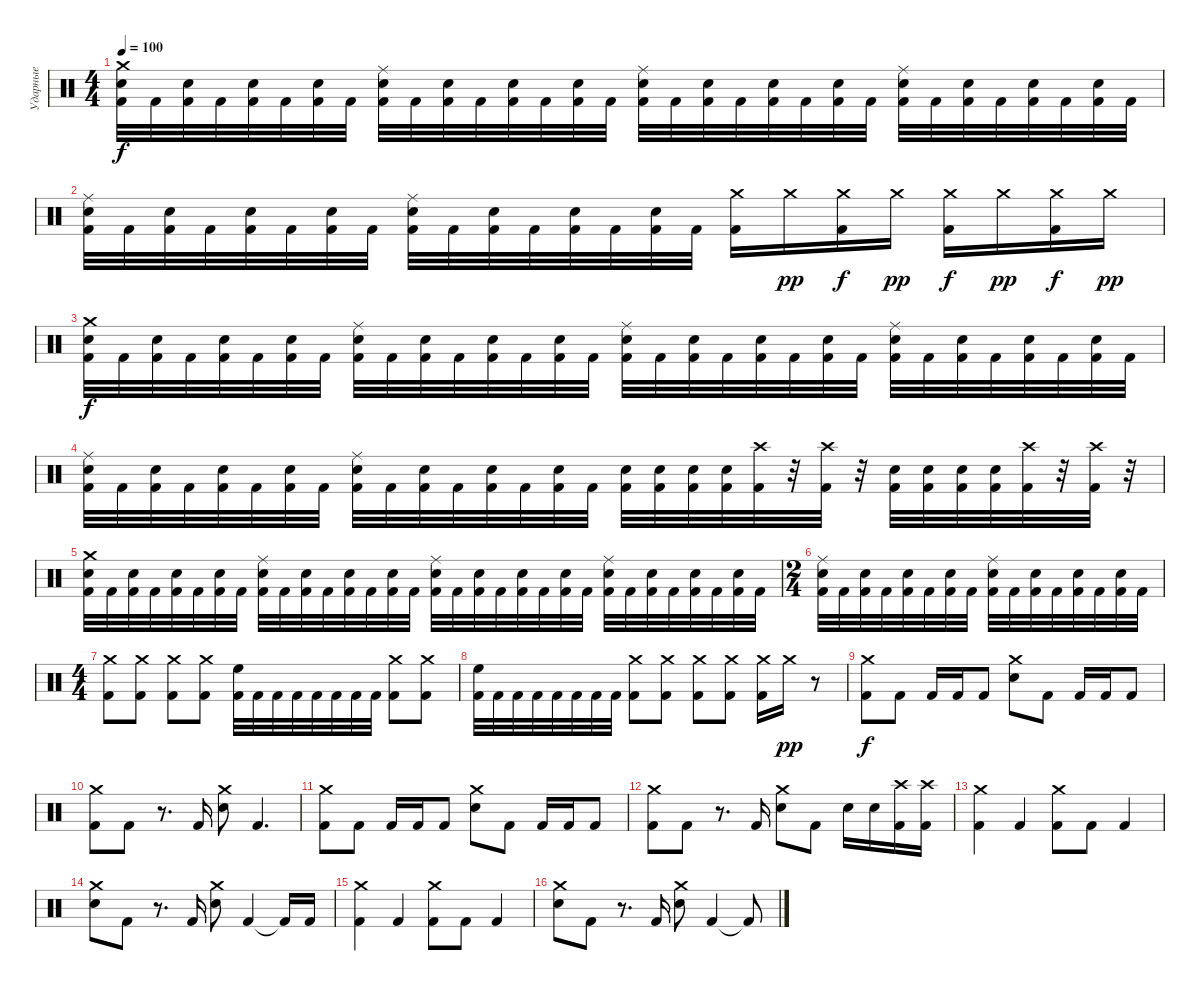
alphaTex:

\track ("Ударные" "Ударные") {instrument percussion}
\staff {score}
\articulation defaults
\ts (4 4)
\tempo 100
\clef neutral
\ks c
("Crash medium (hit)" "Electric Snare (hit)" "Kick (hit) 2").32{dy f} "Kick (hit) 2".32 ("Electric Snare (hit)" "Kick (hit) 2").32 "Kick (hit) 2".32 ("Electric Snare (hit)" "Kick (hit) 2").32 "Kick (hit) 2".32 ("Electric Snare (hit)" "Kick (hit) 2").32 "Kick (hit) 2".32 ("Ride (middle)" "Electric Snare (hit)" "Kick (hit) 2").32 "Kick (hit) 2".32 ("Electric Snare (hit)" "Kick (hit) 2").32 "Kick (hit) 2".32 ("Electric Snare (hit)" "Kick (hit) 2").32 "Kick (hit) 2".32 ("Electric Snare (hit)" "Kick (hit) 2").32 "Kick (hit) 2".32 ("Ride (middle)" "Electric Snare (hit)" "Kick (hit) 2").32 "Kick (hit) 2".32 ("Electric Snare (hit)" "Kick (hit) 2").32 "Kick (hit) 2".32 ("Electric Snare (hit)" "Kick (hit) 2").32 "Kick (hit) 2".32 ("Electric Snare (hit)" "Kick (hit) 2").32 "Kick (hit) 2".32 ("Ride (middle)" "Electric Snare (hit)" "Kick (hit) 2").32 "Kick (hit) 2".32 ("Electric Snare (hit)" "Kick (hit) 2").32 "Kick (hit) 2".32 ("Electric Snare (hit)" "Kick (hit) 2").32 "Kick (hit) 2".32 ("Electric Snare (hit)" "Kick (hit) 2").32 "Kick (hit) 2".32 |
("Ride (middle)" "Electric Snare (hit)" "Kick (hit) 2").32 "Kick (hit) 2".32 ("Electric Snare (hit)" "Kick (hit) 2").32 "Kick (hit) 2".32 ("Electric Snare (hit)" "Kick (hit) 2").32 "Kick (hit) 2".32 ("Electric Snare (hit)" "Kick (hit) 2").32 "Kick (hit) 2".32 ("Ride (middle)" "Electric Snare (hit)" "Kick (hit) 2").32 "Kick (hit) 2".32 ("Electric Snare (hit)" "Kick (hit) 2").32 "Kick (hit) 2".32 ("Electric Snare (hit)" "Kick (hit) 2").32 "Kick (hit) 2".32 ("Electric Snare (hit)" "Kick (hit) 2").32 "Kick (hit) 2".32 ("Crash medium (hit)" "Kick (hit) 2").16 "Crash medium (hit)".16{dy pp} ("Crash medium (hit)" "Kick (hit) 2").16{dy f} "Crash medium (hit)".16{dy pp} ("Crash medium (hit)" "Kick (hit) 2").16{dy f} "Crash medium (hit)".16{dy pp} ("Crash medium (hit)" "Kick (hit) 2").16{dy f} "Crash medium (hit)".16{dy pp} |
("Crash medium (hit)" "Electric Snare (hit)" "Kick (hit) 2").32{dy f} "Kick (hit) 2".32 ("Electric Snare (hit)" "Kick (hit) 2").32 "Kick (hit) 2".32 ("Electric Snare (hit)" "Kick (hit) 2").32 "Kick (hit) 2".32 ("Electric Snare (hit)" "Kick (hit) 2").32 "Kick (hit) 2".32 ("Ride (middle)" "Electric Snare (hit)" "Kick (hit) 2").32 "Kick (hit) 2".32 ("Electric Snare (hit)" "Kick (hit) 2").32 "Kick (hit) 2".32 ("Electric Snare (hit)" "Kick (hit) 2").32 "Kick (hit) 2".32 ("Electric Snare (hit)" "Kick (hit) 2").32 "Kick (hit) 2".32 ("Ride (middle)" "Electric Snare (hit)" "Kick (hit) 2").32 "Kick (hit) 2".32 ("Electric Snare (hit)" "Kick (hit) 2").32 "Kick (hit) 2".32 ("Electric Snare (hit)" "Kick (hit) 2").32 "Kick (hit) 2".32 ("Electric Snare (hit)" "Kick (hit) 2").32 "Kick (hit) 2".32 ("Ride (middle)" "Electric Snare (hit)" "Kick (hit) 2").32 "Kick (hit) 2".32 ("Electric Snare (hit)" "Kick (hit) 2").32 "Kick (hit) 2".32 ("Electric Snare (hit)" "Kick (hit) 2").32 "Kick (hit) 2".32 ("Electric Snare (hit)" "Kick (hit) 2").32 "Kick (hit) 2".32 |
("Ride (middle)" "Electric Snare (hit)" "Kick (hit) 2").32 "Kick (hit) 2".32 ("Electric Snare (hit)" "Kick (hit) 2").32 "Kick (hit) 2".32 ("Electric Snare (hit)" "Kick (hit) 2").32 "Kick (hit) 2".32 ("Electric Snare (hit)" "Kick (hit) 2").32 "Kick (hit) 2".32 ("Ride (middle)" "Electric Snare (hit)" "Kick (hit) 2").32 "Kick (hit) 2".32 ("Electric Snare (hit)" "Kick (hit) 2").32 "Kick (hit) 2".32 ("Electric Snare (hit)" "Kick (hit) 2").32 "Kick (hit) 2".32 ("Electric Snare (hit)" "Kick (hit) 2").32 "Kick (hit) 2".32 ("Electric Snare (hit)" "Kick (hit) 2").32 ("Electric Snare (hit)" "Kick (hit) 2").32 ("Electric Snare (hit)" "Kick (hit) 2").32 ("Electric Snare (hit)" "Kick (hit) 2").32 ("Crash high (hit)" "Kick (hit) 2").32 r.32 ("Crash high (hit)" "Kick (hit) 2").32 r.32 ("Electric Snare (hit)" "Kick (hit) 2").32 ("Electric Snare (hit)" "Kick (hit) 2").32 ("Electric Snare (hit)" "Kick (hit) 2").32 ("Electric Snare (hit)" "Kick (hit) 2").32 ("Crash high (hit)" "Kick (hit) 2").32 r.32 ("Crash high (hit)" "Kick (hit) 2").32 r.32 |
("Crash medium (hit)" "Electric Snare (hit)" "Kick (hit) 2").32 "Kick (hit) 2".32 ("Electric Snare (hit)" "Kick (hit) 2").32 "Kick (hit) 2".32 ("Electric Snare (hit)" "Kick (hit) 2").32 "Kick (hit) 2".32 ("Electric Snare (hit)" "Kick (hit) 2").32 "Kick (hit) 2".32 ("Ride (middle)" "Electric Snare (hit)" "Kick (hit) 2").32 "Kick (hit) 2".32 ("Electric Snare (hit)" "Kick (hit) 2").32 "Kick (hit) 2".32 ("Electric Snare (hit)" "Kick (hit) 2").32 "Kick (hit) 2".32 ("Electric Snare (hit)" "Kick (hit) 2").32 "Kick (hit) 2".32 ("Ride (middle)" "Electric Snare (hit)" "Kick (hit) 2").32 "Kick (hit) 2".32 ("Electric Snare (hit)" "Kick (hit) 2").32 "Kick (hit) 2".32 ("Electric Snare (hit)" "Kick (hit) 2").32 "Kick (hit) 2".32 ("Electric Snare (hit)" "Kick (hit) 2").32 "Kick (hit) 2".32 ("Ride (middle)" "Electric Snare (hit)" "Kick (hit) 2").32 "Kick (hit) 2".32 ("Electric Snare (hit)" "Kick (hit) 2").32 "Kick (hit) 2".32 ("Electric Snare (hit)" "Kick (hit) 2").32 "Kick (hit) 2".32 ("Electric Snare (hit)" "Kick (hit) 2").32 "Kick (hit) 2".32 |
\ts (2 4)
("Ride (middle)" "Electric Snare (hit)" "Kick (hit) 2").32 "Kick (hit) 2".32 ("Electric Snare (hit)" "Kick (hit) 2").32 "Kick (hit) 2".32 ("Electric Snare (hit)" "Kick (hit) 2").32 "Kick (hit) 2".32 ("Electric Snare (hit)" "Kick (hit) 2").32 "Kick (hit) 2".32 ("Ride (middle)" "Electric Snare (hit)" "Kick (hit) 2").32 "Kick (hit) 2".32 ("Electric Snare (hit)" "Kick (hit) 2").32 "Kick (hit) 2".32 ("Electric Snare (hit)" "Kick (hit) 2").32 "Kick (hit) 2".32 ("Electric Snare (hit)" "Kick (hit) 2").32 "Kick (hit) 2".32 |
\ts (4 4)
("Crash medium (hit)" "Kick (hit) 2").8 ("Crash medium (hit)" "Kick (hit) 2").8 ("Crash medium (hit)" "Kick (hit) 2").8 ("Crash medium (hit)" "Kick (hit) 2").8 ("High Floor Tom (hit)" "Kick (hit) 2").32 "Kick (hit) 2".32 "Kick (hit) 2".32 "Kick (hit) 2".32 "Kick (hit) 2".32 "Kick (hit) 2".32 "Kick (hit) 2".32 "Kick (hit) 2".32 ("Crash medium (hit)" "Kick (hit) 2").8 ("Crash medium (hit)" "Kick (hit) 2").8 |
("High Floor Tom (hit)" "Kick (hit) 2").32 "Kick (hit) 2".32 "Kick (hit) 2".32 "Kick (hit) 2".32 "Kick (hit) 2".32 "Kick (hit) 2".32 "Kick (hit) 2".32 "Kick (hit) 2".32 ("Crash medium (hit)" "Kick (hit) 2").8 ("Crash medium (hit)" "Kick (hit) 2").8 ("Crash medium (hit)" "Kick (hit) 2").8 ("Crash medium (hit)" "Kick (hit) 2").8 ("Crash medium (hit)" "Kick (hit) 2").16 "Crash medium (hit)".16{dy pp} r.8 |
("Crash medium (hit)" "Kick (hit) 2").8{dy f} "Kick (hit) 2".8 "Kick (hit) 2".16 "Kick (hit) 2".16 "Kick (hit) 2".8 ("Crash medium (hit)" "Electric Snare (hit)").8 "Kick (hit) 2".8 "Kick (hit) 2".16 "Kick (hit) 2".16 "Kick (hit) 2".8 |
("Crash medium (hit)" "Kick (hit) 2").8 "Kick (hit) 2".8 r.8{d} "Kick (hit) 2".16 ("Crash medium (hit)" "Electric Snare (hit)").8 "Kick (hit) 2".4{d} |
("Crash medium (hit)" "Kick (hit) 2").8 "Kick (hit) 2".8 "Kick (hit) 2".16 "Kick (hit) 2".16 "Kick (hit) 2".8 ("Crash medium (hit)" "Electric Snare (hit)").8 "Kick (hit) 2".8 "Kick (hit) 2".16 "Kick (hit) 2".16 "Kick (hit) 2".8 |
("Crash medium (hit)" "Kick (hit) 2").8 "Kick (hit) 2".8 r.8{d} "Kick (hit) 2".16 ("Crash medium (hit)" "Electric Snare (hit)").8 "Kick (hit) 2".8 "Electric Snare (hit)".16 "Electric Snare (hit)".16 ("Crash high (hit)" "Kick (hit) 2").16 ("Crash high (hit)" "Kick (hit) 2").16 |
("Crash medium (hit)" "Kick (hit) 2").4 "Kick (hit) 2".4 ("Crash medium (hit)" "Kick (hit) 2").8 "Kick (hit) 2".8 "Kick (hit) 2".4 |
("Crash medium (hit)" "Electric Snare (hit)").8 "Kick (hit) 2".8 r.8{d} "Kick (hit) 2".16 ("Crash medium (hit)" "Electric Snare (hit)").8 "Kick (hit) 2".4 "Kick (hit) 2"{t}.16 "Kick (hit) 2".16 |
("Crash medium (hit)" "Kick (hit) 2").4 "Kick (hit) 2".4 ("Crash medium (hit)" "Kick (hit) 2").8 "Kick (hit) 2".8 "Kick (hit) 2".4 |
("Crash medium (hit)" "Electric Snare (hit)").8 "Kick (hit) 2".8 r.8{d} "Kick (hit) 2".16 ("Crash medium (hit)" "Electric Snare (hit)").8 "Kick (hit) 2".4 "Kick (hit) 2"{t}.8
